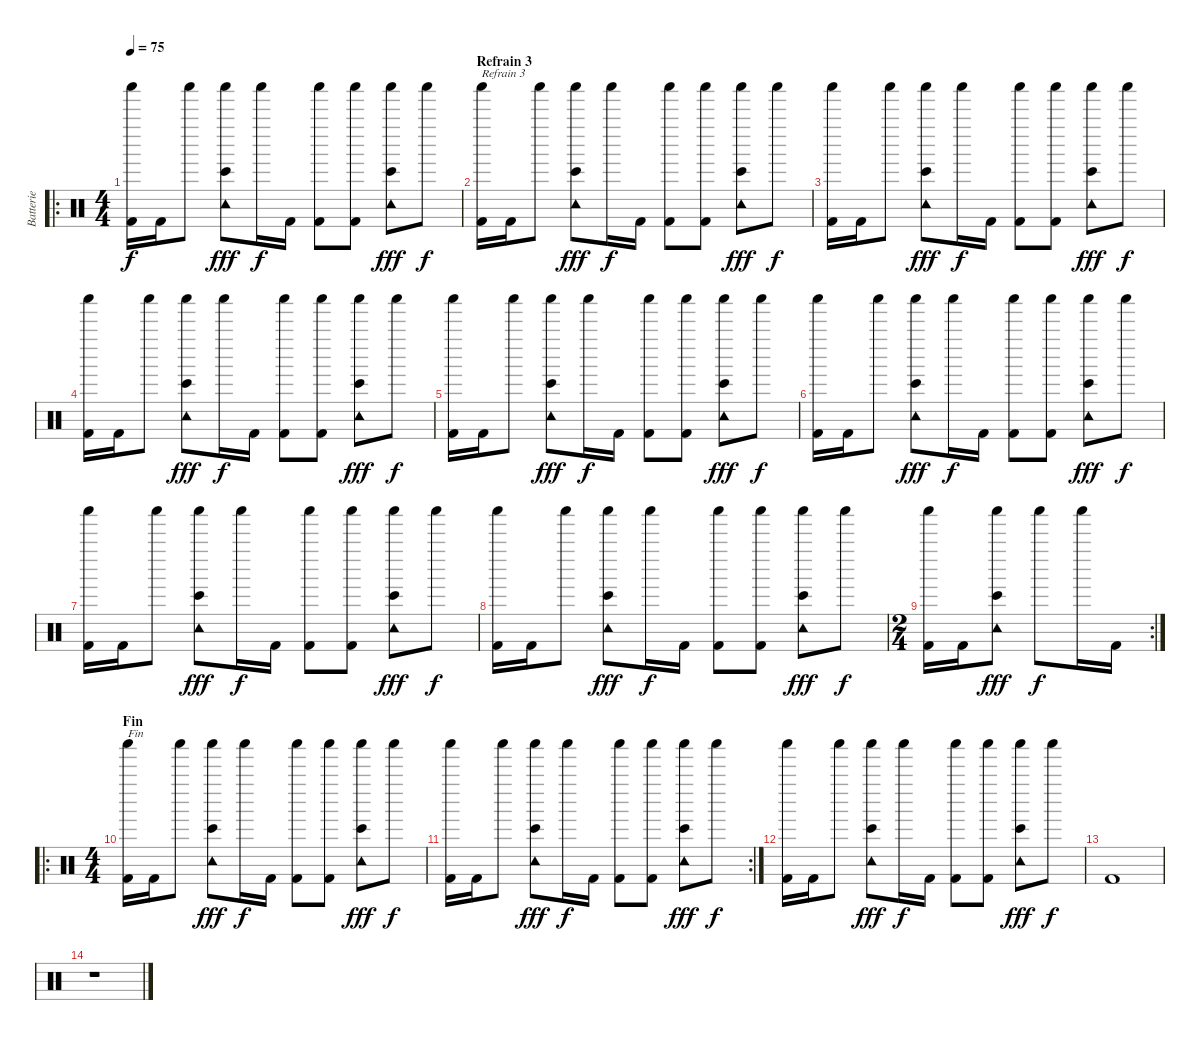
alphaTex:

\track ("Batterie" "Batterie") {instrument percussion}
\staff {score}
\articulation defaults
\ro
\ts (4 4)
\tempo 75
\clef neutral
\ks c
("Shaker (hit)" "Kick (hit) 2").16{dy f} "Kick (hit) 2".16 "Shaker (hit)".8 ("Shaker (hit)" "Tambourine (hit)" "Bongo High (hit)").8{dy fff} "Shaker (hit)".16{dy f} "Kick (hit) 2".16 ("Shaker (hit)" "Kick (hit) 2").8 ("Shaker (hit)" "Kick (hit) 2").8 ("Shaker (hit)" "Tambourine (hit)" "Bongo High (hit)").8{dy fff} "Shaker (hit)".8{dy f} |
\section ("" "Refrain 3")
("Shaker (hit)" "Kick (hit) 2").16{txt "Refrain 3"} "Kick (hit) 2".16 "Shaker (hit)".8 ("Shaker (hit)" "Tambourine (hit)" "Bongo High (hit)").8{dy fff} "Shaker (hit)".16{dy f} "Kick (hit) 2".16 ("Shaker (hit)" "Kick (hit) 2").8 ("Shaker (hit)" "Kick (hit) 2").8 ("Shaker (hit)" "Tambourine (hit)" "Bongo High (hit)").8{dy fff} "Shaker (hit)".8{dy f} |
("Shaker (hit)" "Kick (hit) 2").16 "Kick (hit) 2".16 "Shaker (hit)".8 ("Shaker (hit)" "Tambourine (hit)" "Bongo High (hit)").8{dy fff} "Shaker (hit)".16{dy f} "Kick (hit) 2".16 ("Shaker (hit)" "Kick (hit) 2").8 ("Shaker (hit)" "Kick (hit) 2").8 ("Shaker (hit)" "Tambourine (hit)" "Bongo High (hit)").8{dy fff} "Shaker (hit)".8{dy f} |
("Shaker (hit)" "Kick (hit) 2").16 "Kick (hit) 2".16 "Shaker (hit)".8 ("Shaker (hit)" "Tambourine (hit)" "Bongo High (hit)").8{dy fff} "Shaker (hit)".16{dy f} "Kick (hit) 2".16 ("Shaker (hit)" "Kick (hit) 2").8 ("Shaker (hit)" "Kick (hit) 2").8 ("Shaker (hit)" "Tambourine (hit)" "Bongo High (hit)").8{dy fff} "Shaker (hit)".8{dy f} |
("Shaker (hit)" "Kick (hit) 2").16 "Kick (hit) 2".16 "Shaker (hit)".8 ("Shaker (hit)" "Tambourine (hit)" "Bongo High (hit)").8{dy fff} "Shaker (hit)".16{dy f} "Kick (hit) 2".16 ("Shaker (hit)" "Kick (hit) 2").8 ("Shaker (hit)" "Kick (hit) 2").8 ("Shaker (hit)" "Tambourine (hit)" "Bongo High (hit)").8{dy fff} "Shaker (hit)".8{dy f} |
("Shaker (hit)" "Kick (hit) 2").16 "Kick (hit) 2".16 "Shaker (hit)".8 ("Shaker (hit)" "Tambourine (hit)" "Bongo High (hit)").8{dy fff} "Shaker (hit)".16{dy f} "Kick (hit) 2".16 ("Shaker (hit)" "Kick (hit) 2").8 ("Shaker (hit)" "Kick (hit) 2").8 ("Shaker (hit)" "Tambourine (hit)" "Bongo High (hit)").8{dy fff} "Shaker (hit)".8{dy f} |
("Shaker (hit)" "Kick (hit) 2").16 "Kick (hit) 2".16 "Shaker (hit)".8 ("Shaker (hit)" "Tambourine (hit)" "Bongo High (hit)").8{dy fff} "Shaker (hit)".16{dy f} "Kick (hit) 2".16 ("Shaker (hit)" "Kick (hit) 2").8 ("Shaker (hit)" "Kick (hit) 2").8 ("Shaker (hit)" "Tambourine (hit)" "Bongo High (hit)").8{dy fff} "Shaker (hit)".8{dy f} |
("Shaker (hit)" "Kick (hit) 2").16 "Kick (hit) 2".16 "Shaker (hit)".8 ("Shaker (hit)" "Tambourine (hit)" "Bongo High (hit)").8{dy fff} "Shaker (hit)".16{dy f} "Kick (hit) 2".16 ("Shaker (hit)" "Kick (hit) 2").8 ("Shaker (hit)" "Kick (hit) 2").8 ("Shaker (hit)" "Tambourine (hit)" "Bongo High (hit)").8{dy fff} "Shaker (hit)".8{dy f} |
\rc 2
\ts (2 4)
("Shaker (hit)" "Kick (hit) 2").16 "Kick (hit) 2".16 ("Shaker (hit)" "Tambourine (hit)" "Bongo High (hit)").8{dy fff} "Shaker (hit)".8{dy f} "Shaker (hit)".16 "Kick (hit) 2".16 |
\ro
\ts (4 4)
\section ("" "Fin")
("Shaker (hit)" "Kick (hit) 2").16{txt "Fin"} "Kick (hit) 2".16 "Shaker (hit)".8 ("Shaker (hit)" "Tambourine (hit)" "Bongo High (hit)").8{dy fff} "Shaker (hit)".16{dy f} "Kick (hit) 2".16 ("Shaker (hit)" "Kick (hit) 2").8 ("Shaker (hit)" "Kick (hit) 2").8 ("Shaker (hit)" "Tambourine (hit)" "Bongo High (hit)").8{dy fff} "Shaker (hit)".8{dy f} |
\rc 2
("Shaker (hit)" "Kick (hit) 2").16 "Kick (hit) 2".16 "Shaker (hit)".8 ("Shaker (hit)" "Tambourine (hit)" "Bongo High (hit)").8{dy fff} "Shaker (hit)".16{dy f} "Kick (hit) 2".16 ("Shaker (hit)" "Kick (hit) 2").8 ("Shaker (hit)" "Kick (hit) 2").8 ("Shaker (hit)" "Tambourine (hit)" "Bongo High (hit)").8{dy fff} "Shaker (hit)".8{dy f} |
("Shaker (hit)" "Kick (hit) 2").16 "Kick (hit) 2".16 "Shaker (hit)".8 ("Shaker (hit)" "Tambourine (hit)" "Bongo High (hit)").8{dy fff} "Shaker (hit)".16{dy f} "Kick (hit) 2".16 ("Shaker (hit)" "Kick (hit) 2").8 ("Shaker (hit)" "Kick (hit) 2").8 ("Shaker (hit)" "Tambourine (hit)" "Bongo High (hit)").8{dy fff} "Shaker (hit)".8{dy f} |
"Kick (hit) 2".1 |
r.1
